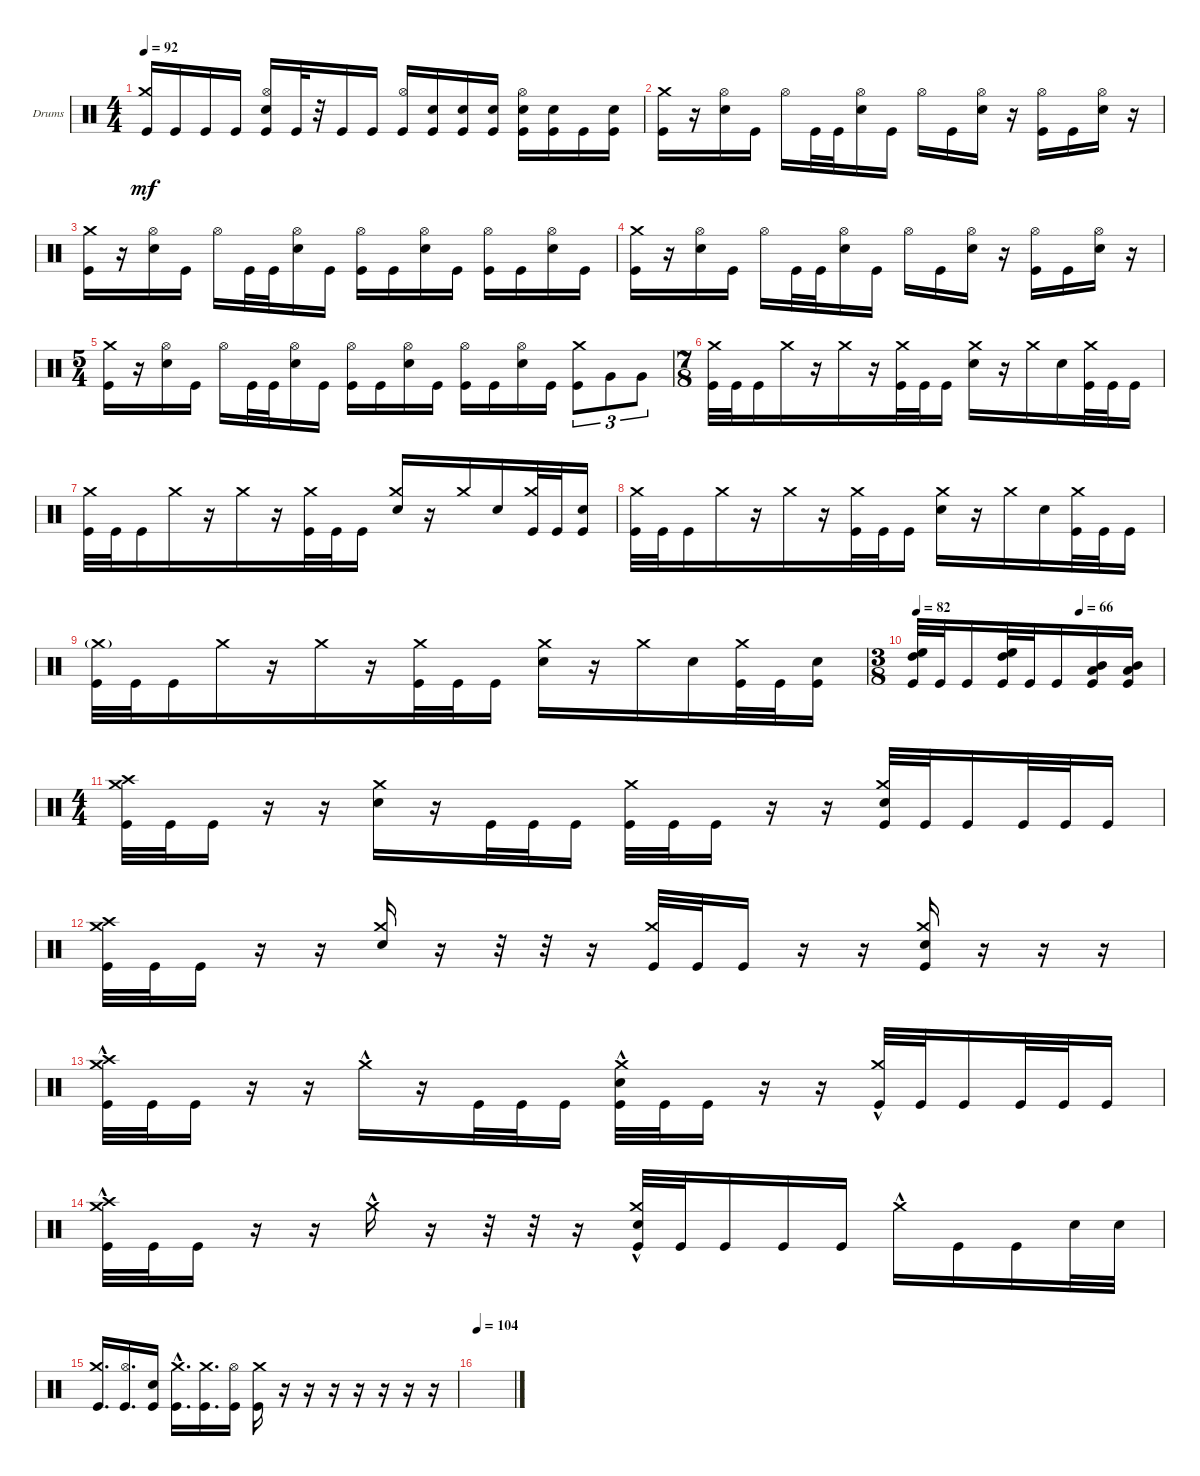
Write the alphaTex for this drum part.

\defaultSystemsLayout 4
\bracketExtendMode groupsimilarinstruments
\firstSystemTrackNameOrientation horizontal
\otherSystemsTrackNameOrientation horizontal
\track ("Drumkit" "Drums") {instrument percussion}
\staff {score}
\articulation defaults
\ts (4 4)
\tempo 92
\clef neutral
\ks c
("Kick (hit)" "Crash medium (hit)").16{dy mf beam invert} "Kick (hit)".16 "Kick (hit)".16 "Kick (hit)".16 ("Kick (hit)" "Snare (hit) 2" "Hi-Hat (open)").16 "Kick (hit)".32 r.32 "Kick (hit)".16 "Kick (hit)".16 ("Hi-Hat (open)" "Kick (hit)").16{beam invert} ("Kick (hit)" "Snare (hit) 2").16 ("Kick (hit)" "Snare (hit) 2").16 ("Kick (hit)" "Snare (hit) 2").16 ("Kick (hit)" "Snare (hit) 2" "Hi-Hat (open)").16 ("Kick (hit)" "Snare (hit) 2").16 "Kick (hit)".16 ("Kick (hit)" "Snare (hit) 2").16 |
("Kick (hit)" "Crash medium (hit)").16 r.16 ("Hi-Hat (open)" "Snare (hit) 2").16 "Kick (hit)".16 "Hi-Hat (open)".16 "Kick (hit)".32 "Kick (hit)".32 ("Snare (hit) 2" "Hi-Hat (open)").16 "Kick (hit)".16 "Hi-Hat (open)".16 "Kick (hit)".16 ("Snare (hit) 2" "Hi-Hat (open)").16 r.16 ("Kick (hit)" "Hi-Hat (open)").16 "Kick (hit)".16 ("Snare (hit) 2" "Hi-Hat (open)").16 r.16 |
("Kick (hit)" "Crash medium (hit)").16 r.16 ("Hi-Hat (open)" "Snare (hit) 2").16 "Kick (hit)".16 "Hi-Hat (open)".16 "Kick (hit)".32 "Kick (hit)".32 ("Snare (hit) 2" "Hi-Hat (open)").16 "Kick (hit)".16 ("Kick (hit)" "Hi-Hat (open)").16 "Kick (hit)".16 ("Snare (hit) 2" "Hi-Hat (open)").16 "Kick (hit)".16 ("Kick (hit)" "Hi-Hat (open)").16 "Kick (hit)".16 ("Snare (hit) 2" "Hi-Hat (open)").16 "Kick (hit)".16 |
("Kick (hit)" "Crash medium (hit)").16 r.16 ("Hi-Hat (open)" "Snare (hit) 2").16 "Kick (hit)".16 "Hi-Hat (open)".16 "Kick (hit)".32 "Kick (hit)".32 ("Snare (hit) 2" "Hi-Hat (open)").16 "Kick (hit)".16 "Hi-Hat (open)".16 "Kick (hit)".16 ("Snare (hit) 2" "Hi-Hat (open)").16 r.16 ("Kick (hit)" "Hi-Hat (open)").16 "Kick (hit)".16 ("Snare (hit) 2" "Hi-Hat (open)").16 r.16 |
\ts (5 4)
("Kick (hit)" "Crash medium (hit)").16 r.16 ("Hi-Hat (open)" "Snare (hit) 2").16 "Kick (hit)".16 "Hi-Hat (open)".16 "Kick (hit)".32 "Kick (hit)".32 ("Snare (hit) 2" "Hi-Hat (open)").16 "Kick (hit)".16 ("Kick (hit)" "Hi-Hat (open)").16 "Kick (hit)".16 ("Snare (hit) 2" "Hi-Hat (open)").16 "Kick (hit)".16 ("Kick (hit)" "Hi-Hat (open)").16 "Kick (hit)".16 ("Snare (hit) 2" "Hi-Hat (open)").16 "Kick (hit)".16 ("Kick (hit)" "Crash medium (hit)").8{tu (3 2)} "Very Low Tom (hit)".8{tu (3 2)} "Very Low Tom (hit)".8{tu (3 2)} |
\ts (7 8)
("Crash medium (hit)" "Kick (hit)").32 "Kick (hit)".32 "Kick (hit)".16 "Crash medium (hit)".16 r.16 "Crash medium (hit)".16 r.16 ("Crash medium (hit)" "Kick (hit)").32 "Kick (hit)".32 "Kick (hit)".16 ("Snare (hit) 2" "Crash medium (hit)").16 r.16 "Crash medium (hit)".16 "Snare (hit) 2".16 ("Crash medium (hit)" "Kick (hit)").32 "Kick (hit)".32 "Kick (hit)".16 |
("Crash medium (hit)" "Kick (hit)").32 "Kick (hit)".32 "Kick (hit)".16 "Crash medium (hit)".16 r.16 "Crash medium (hit)".16 r.16 ("Crash medium (hit)" "Kick (hit)").32 "Kick (hit)".32 "Kick (hit)".16 ("Snare (hit) 2" "Crash medium (hit)").16 r.16 "Crash medium (hit)".16{beam invert} "Snare (hit) 2".16 ("Crash medium (hit)" "Kick (hit)").32 "Kick (hit)".32 ("Kick (hit)" "Snare (hit) 2").16 |
("Crash medium (hit)" "Kick (hit)").32 "Kick (hit)".32 "Kick (hit)".16 "Crash medium (hit)".16 r.16 "Crash medium (hit)".16 r.16 ("Crash medium (hit)" "Kick (hit)").32 "Kick (hit)".32 "Kick (hit)".16 ("Snare (hit) 2" "Crash medium (hit)").16 r.16 "Crash medium (hit)".16 "Snare (hit) 2".16 ("Crash medium (hit)" "Kick (hit)").32 "Kick (hit)".32 "Kick (hit)".16 |
("Crash medium (hit)"{g} "Kick (hit)").32 "Kick (hit)".32 "Kick (hit)".16 "Crash medium (hit)".16 r.16 "Crash medium (hit)".16 r.16 ("Crash medium (hit)" "Kick (hit)").32 "Kick (hit)".32 "Kick (hit)".16 ("Snare (hit) 2" "Crash medium (hit)").16 r.16 "Crash medium (hit)".16 "Snare (hit) 2".16 ("Crash medium (hit)" "Kick (hit)").32 "Kick (hit)".32 ("Kick (hit)" "Snare (hit) 2").16 |
\ts (3 8)
\tempo 82
\tempo (66 0.6625)
("High Floor Tom (hit)" "High Tom (hit)" "Kick (hit)").32 "Kick (hit)".32 "Kick (hit)".16 ("High Floor Tom (hit)" "High Tom (hit)" "Kick (hit)").32 "Kick (hit)".32 "Kick (hit)".16 ("Kick (hit)" "Mid Tom (hit)" "Low Tom (hit)").16 ("Low Tom (hit)" "Mid Tom (hit)" "Kick (hit)").16 |
\ts (4 4)
("Crash medium (hit)" "Kick (hit)" "Crash high (hit)").32 "Kick (hit)".32 "Kick (hit)".16 r.16 r.16 ("Snare (hit) 2" "Crash medium (hit)").16 r.16 "Kick (hit)".32 "Kick (hit)".32 "Kick (hit)".16 ("Kick (hit)" "Crash medium (hit)").32 "Kick (hit)".32 "Kick (hit)".16 r.16 r.16 ("Kick (hit)" "Snare (hit) 2" "Crash medium (hit)").32 "Kick (hit)".32 "Kick (hit)".16 "Kick (hit)".32 "Kick (hit)".32 "Kick (hit)".16 |
("Crash medium (hit)" "Kick (hit)" "Crash high (hit)").32 "Kick (hit)".32 "Kick (hit)".16 r.16 r.16 ("Snare (hit) 2" "Crash medium (hit)").16 r.16 r.32 r.32 r.16 ("Kick (hit)" "Crash medium (hit)").32{beam invert} "Kick (hit)".32 "Kick (hit)".16 r.16 r.16 ("Kick (hit)" "Snare (hit) 2" "Crash medium (hit)").16 r.16 r.16 r.16 |
("Kick (hit)" "Crash medium (hit)"{hac} "Crash high (hit)").32 "Kick (hit)".32 "Kick (hit)".16 r.16 r.16 "Crash medium (hit)"{hac}.16 r.16 "Kick (hit)".32 "Kick (hit)".32 "Kick (hit)".16 ("Snare (hit) 2" "Crash medium (hit)"{hac} "Kick (hit)").32 "Kick (hit)".32 "Kick (hit)".16 r.16 r.16 ("Kick (hit)" "Crash medium (hit)"{hac}).32{beam invert} "Kick (hit)".32 "Kick (hit)".16 "Kick (hit)".32 "Kick (hit)".32 "Kick (hit)".16 |
("Crash medium (hit)"{hac} "Kick (hit)" "Crash high (hit)").32 "Kick (hit)".32 "Kick (hit)".16 r.16 r.16 "Crash medium (hit)"{hac}.16 r.16 r.32 r.32 r.16 ("Snare (hit) 2" "Crash medium (hit)"{hac} "Kick (hit)").32 "Kick (hit)".32 "Kick (hit)".16 "Kick (hit)".16 "Kick (hit)".16 "Crash medium (hit)"{hac}.16 "Kick (hit)".16 "Kick (hit)".16 "Snare (hit) 2".32 "Snare (hit) 2".32 |
("Crash medium (hit)" "Kick (hit)").16{d beam invert} ("Hi-Hat (open)" "Kick (hit)").16{d} ("Snare (hit) 2" "Kick (hit)").16 ("Kick (hit)" "Crash medium (hit)"{hac}).16{d} ("Kick (hit)" "Crash medium (hit)").16{d} ("Kick (hit)" "Hi-Hat (open)").16 ("Crash medium (hit)" "Kick (hit)").16 r.16 r.16 r.16 r.16 r.16 r.16 r.16 |
\tempo 104
